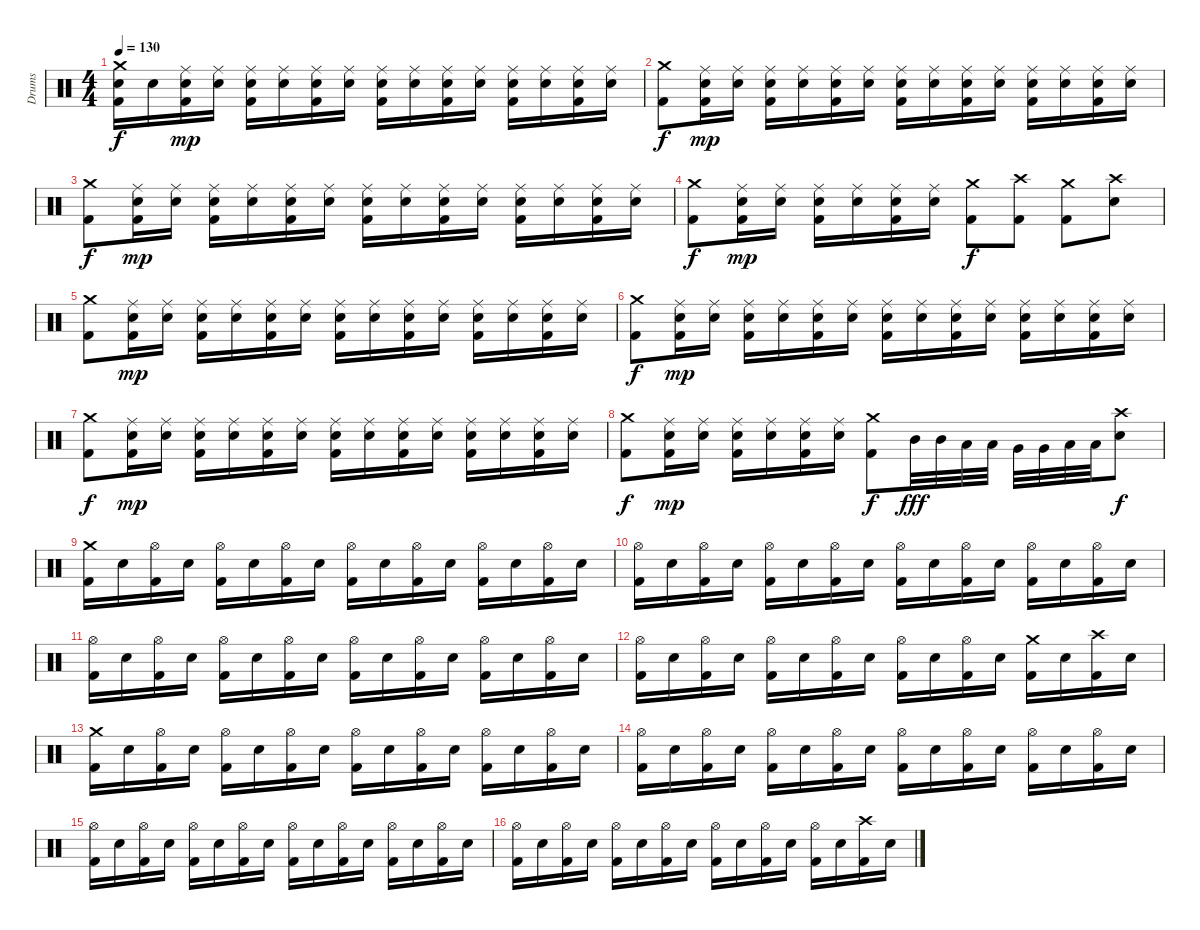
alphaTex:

\track ("Drums" "Drums") {instrument percussion}
\staff {score}
\articulation defaults
\ts (4 4)
\tempo 130
\clef neutral
\ks c
("Kick (hit) 2" "Electric Snare (hit)" "Crash medium (hit)").16{dy f} "Electric Snare (hit)".16 ("Kick (hit) 2" "Electric Snare (hit)" "Ride (middle)").16{dy mp} ("Electric Snare (hit)" "Ride (middle)").16 ("Kick (hit) 2" "Electric Snare (hit)" "Ride (middle)").16 ("Electric Snare (hit)" "Ride (middle)").16 ("Kick (hit) 2" "Electric Snare (hit)" "Ride (middle)").16 ("Electric Snare (hit)" "Ride (middle)").16 ("Kick (hit) 2" "Electric Snare (hit)" "Ride (middle)").16 ("Electric Snare (hit)" "Ride (middle)").16 ("Kick (hit) 2" "Electric Snare (hit)" "Ride (middle)").16 ("Electric Snare (hit)" "Ride (middle)").16 ("Kick (hit) 2" "Electric Snare (hit)" "Ride (middle)").16 ("Electric Snare (hit)" "Ride (middle)").16 ("Kick (hit) 2" "Electric Snare (hit)" "Ride (middle)").16 ("Electric Snare (hit)" "Ride (middle)").16 |
("Kick (hit) 2" "Crash medium (hit)").8{dy f} ("Kick (hit) 2" "Electric Snare (hit)" "Ride (middle)").16{dy mp} ("Electric Snare (hit)" "Ride (middle)").16 ("Kick (hit) 2" "Electric Snare (hit)" "Ride (middle)").16 ("Electric Snare (hit)" "Ride (middle)").16 ("Kick (hit) 2" "Electric Snare (hit)" "Ride (middle)").16 ("Electric Snare (hit)" "Ride (middle)").16 ("Kick (hit) 2" "Electric Snare (hit)" "Ride (middle)").16 ("Electric Snare (hit)" "Ride (middle)").16 ("Kick (hit) 2" "Electric Snare (hit)" "Ride (middle)").16 ("Electric Snare (hit)" "Ride (middle)").16 ("Kick (hit) 2" "Electric Snare (hit)" "Ride (middle)").16 ("Electric Snare (hit)" "Ride (middle)").16 ("Kick (hit) 2" "Electric Snare (hit)" "Ride (middle)").16 ("Electric Snare (hit)" "Ride (middle)").16 |
("Kick (hit) 2" "Crash medium (hit)").8{dy f} ("Kick (hit) 2" "Electric Snare (hit)" "Ride (middle)").16{dy mp} ("Electric Snare (hit)" "Ride (middle)").16 ("Kick (hit) 2" "Electric Snare (hit)" "Ride (middle)").16 ("Electric Snare (hit)" "Ride (middle)").16 ("Kick (hit) 2" "Electric Snare (hit)" "Ride (middle)").16 ("Electric Snare (hit)" "Ride (middle)").16 ("Kick (hit) 2" "Electric Snare (hit)" "Ride (middle)").16 ("Electric Snare (hit)" "Ride (middle)").16 ("Kick (hit) 2" "Electric Snare (hit)" "Ride (middle)").16 ("Electric Snare (hit)" "Ride (middle)").16 ("Kick (hit) 2" "Electric Snare (hit)" "Ride (middle)").16 ("Electric Snare (hit)" "Ride (middle)").16 ("Kick (hit) 2" "Electric Snare (hit)" "Ride (middle)").16 ("Electric Snare (hit)" "Ride (middle)").16 |
("Kick (hit) 2" "Crash medium (hit)").8{dy f} ("Kick (hit) 2" "Electric Snare (hit)" "Ride (middle)").16{dy mp} ("Electric Snare (hit)" "Ride (middle)").16 ("Kick (hit) 2" "Electric Snare (hit)" "Ride (middle)").16 ("Electric Snare (hit)" "Ride (middle)").16 ("Kick (hit) 2" "Electric Snare (hit)" "Ride (middle)").16 ("Electric Snare (hit)" "Ride (middle)").16 ("Kick (hit) 2" "Crash medium (hit)").8{dy f} ("Kick (hit) 2" "Crash high (hit)").8 ("Kick (hit) 2" "Crash medium (hit)").8 ("Electric Snare (hit)" "Crash high (hit)").8 |
("Kick (hit) 2" "Crash medium (hit)").8 ("Kick (hit) 2" "Electric Snare (hit)" "Ride (middle)").16{dy mp} ("Electric Snare (hit)" "Ride (middle)").16 ("Kick (hit) 2" "Electric Snare (hit)" "Ride (middle)").16 ("Electric Snare (hit)" "Ride (middle)").16 ("Kick (hit) 2" "Electric Snare (hit)" "Ride (middle)").16 ("Electric Snare (hit)" "Ride (middle)").16 ("Kick (hit) 2" "Electric Snare (hit)" "Ride (middle)").16 ("Electric Snare (hit)" "Ride (middle)").16 ("Kick (hit) 2" "Electric Snare (hit)" "Ride (middle)").16 ("Electric Snare (hit)" "Ride (middle)").16 ("Kick (hit) 2" "Electric Snare (hit)" "Ride (middle)").16 ("Electric Snare (hit)" "Ride (middle)").16 ("Kick (hit) 2" "Electric Snare (hit)" "Ride (middle)").16 ("Electric Snare (hit)" "Ride (middle)").16 |
("Kick (hit) 2" "Crash medium (hit)").8{dy f} ("Kick (hit) 2" "Electric Snare (hit)" "Ride (middle)").16{dy mp} ("Electric Snare (hit)" "Ride (middle)").16 ("Kick (hit) 2" "Electric Snare (hit)" "Ride (middle)").16 ("Electric Snare (hit)" "Ride (middle)").16 ("Kick (hit) 2" "Electric Snare (hit)" "Ride (middle)").16 ("Electric Snare (hit)" "Ride (middle)").16 ("Kick (hit) 2" "Electric Snare (hit)" "Ride (middle)").16 ("Electric Snare (hit)" "Ride (middle)").16 ("Kick (hit) 2" "Electric Snare (hit)" "Ride (middle)").16 ("Electric Snare (hit)" "Ride (middle)").16 ("Kick (hit) 2" "Electric Snare (hit)" "Ride (middle)").16 ("Electric Snare (hit)" "Ride (middle)").16 ("Kick (hit) 2" "Electric Snare (hit)" "Ride (middle)").16 ("Electric Snare (hit)" "Ride (middle)").16 |
("Kick (hit) 2" "Crash medium (hit)").8{dy f} ("Kick (hit) 2" "Electric Snare (hit)" "Ride (middle)").16{dy mp} ("Electric Snare (hit)" "Ride (middle)").16 ("Kick (hit) 2" "Electric Snare (hit)" "Ride (middle)").16 ("Electric Snare (hit)" "Ride (middle)").16 ("Kick (hit) 2" "Electric Snare (hit)" "Ride (middle)").16 ("Electric Snare (hit)" "Ride (middle)").16 ("Kick (hit) 2" "Electric Snare (hit)" "Ride (middle)").16 ("Electric Snare (hit)" "Ride (middle)").16 ("Kick (hit) 2" "Electric Snare (hit)" "Ride (middle)").16 ("Electric Snare (hit)" "Ride (middle)").16 ("Kick (hit) 2" "Electric Snare (hit)" "Ride (middle)").16 ("Electric Snare (hit)" "Ride (middle)").16 ("Kick (hit) 2" "Electric Snare (hit)" "Ride (middle)").16 ("Electric Snare (hit)" "Ride (middle)").16 |
("Kick (hit) 2" "Crash medium (hit)").8{dy f} ("Kick (hit) 2" "Electric Snare (hit)" "Ride (middle)").16{dy mp} ("Electric Snare (hit)" "Ride (middle)").16 ("Kick (hit) 2" "Electric Snare (hit)" "Ride (middle)").16 ("Electric Snare (hit)" "Ride (middle)").16 ("Kick (hit) 2" "Electric Snare (hit)" "Ride (middle)").16 ("Electric Snare (hit)" "Ride (middle)").16 ("Kick (hit) 2" "Crash medium (hit)").8{dy f} "Mid Tom (hit)".32{dy fff} "Mid Tom (hit)".32 "Low Tom (hit)".32 "Low Tom (hit)".32 "Very Low Tom (hit)".32 "Very Low Tom (hit)".32 "Low Floor Tom (hit)".32 "Low Floor Tom (hit)".32 ("Electric Snare (hit)" "Crash high (hit)").8{dy f} |
("Kick (hit) 2" "Crash medium (hit)").16 "Electric Snare (hit)".16 ("Kick (hit) 2" "Hi-Hat (open)").16 "Electric Snare (hit)".16 ("Kick (hit) 2" "Hi-Hat (open)").16 "Electric Snare (hit)".16 ("Kick (hit) 2" "Hi-Hat (open)").16 "Electric Snare (hit)".16 ("Kick (hit) 2" "Hi-Hat (open)").16 "Electric Snare (hit)".16 ("Kick (hit) 2" "Hi-Hat (open)").16 "Electric Snare (hit)".16 ("Kick (hit) 2" "Hi-Hat (open)").16 "Electric Snare (hit)".16 ("Kick (hit) 2" "Hi-Hat (open)").16 "Electric Snare (hit)".16 |
("Kick (hit) 2" "Hi-Hat (open)").16 "Electric Snare (hit)".16 ("Kick (hit) 2" "Hi-Hat (open)").16 "Electric Snare (hit)".16 ("Kick (hit) 2" "Hi-Hat (open)").16 "Electric Snare (hit)".16 ("Kick (hit) 2" "Hi-Hat (open)").16 "Electric Snare (hit)".16 ("Kick (hit) 2" "Hi-Hat (open)").16 "Electric Snare (hit)".16 ("Kick (hit) 2" "Hi-Hat (open)").16 "Electric Snare (hit)".16 ("Kick (hit) 2" "Hi-Hat (open)").16 "Electric Snare (hit)".16 ("Kick (hit) 2" "Hi-Hat (open)").16 "Electric Snare (hit)".16 |
("Kick (hit) 2" "Hi-Hat (open)").16 "Electric Snare (hit)".16 ("Kick (hit) 2" "Hi-Hat (open)").16 "Electric Snare (hit)".16 ("Kick (hit) 2" "Hi-Hat (open)").16 "Electric Snare (hit)".16 ("Kick (hit) 2" "Hi-Hat (open)").16 "Electric Snare (hit)".16 ("Kick (hit) 2" "Hi-Hat (open)").16 "Electric Snare (hit)".16 ("Kick (hit) 2" "Hi-Hat (open)").16 "Electric Snare (hit)".16 ("Kick (hit) 2" "Hi-Hat (open)").16 "Electric Snare (hit)".16 ("Kick (hit) 2" "Hi-Hat (open)").16 "Electric Snare (hit)".16 |
("Kick (hit) 2" "Hi-Hat (open)").16 "Electric Snare (hit)".16 ("Kick (hit) 2" "Hi-Hat (open)").16 "Electric Snare (hit)".16 ("Kick (hit) 2" "Hi-Hat (open)").16 "Electric Snare (hit)".16 ("Kick (hit) 2" "Hi-Hat (open)").16 "Electric Snare (hit)".16 ("Kick (hit) 2" "Hi-Hat (open)").16 "Electric Snare (hit)".16 ("Kick (hit) 2" "Hi-Hat (open)").16 "Electric Snare (hit)".16 ("Kick (hit) 2" "Crash medium (hit)").16 "Electric Snare (hit)".16 ("Kick (hit) 2" "Crash high (hit)").16 "Electric Snare (hit)".16 |
("Kick (hit) 2" "Crash medium (hit)").16 "Electric Snare (hit)".16 ("Kick (hit) 2" "Hi-Hat (open)").16 "Electric Snare (hit)".16 ("Kick (hit) 2" "Hi-Hat (open)").16 "Electric Snare (hit)".16 ("Kick (hit) 2" "Hi-Hat (open)").16 "Electric Snare (hit)".16 ("Kick (hit) 2" "Hi-Hat (open)").16 "Electric Snare (hit)".16 ("Kick (hit) 2" "Hi-Hat (open)").16 "Electric Snare (hit)".16 ("Kick (hit) 2" "Hi-Hat (open)").16 "Electric Snare (hit)".16 ("Kick (hit) 2" "Hi-Hat (open)").16 "Electric Snare (hit)".16 |
("Kick (hit) 2" "Hi-Hat (open)").16 "Electric Snare (hit)".16 ("Kick (hit) 2" "Hi-Hat (open)").16 "Electric Snare (hit)".16 ("Kick (hit) 2" "Hi-Hat (open)").16 "Electric Snare (hit)".16 ("Kick (hit) 2" "Hi-Hat (open)").16 "Electric Snare (hit)".16 ("Kick (hit) 2" "Hi-Hat (open)").16 "Electric Snare (hit)".16 ("Kick (hit) 2" "Hi-Hat (open)").16 "Electric Snare (hit)".16 ("Kick (hit) 2" "Hi-Hat (open)").16 "Electric Snare (hit)".16 ("Kick (hit) 2" "Hi-Hat (open)").16 "Electric Snare (hit)".16 |
("Kick (hit) 2" "Hi-Hat (open)").16 "Electric Snare (hit)".16 ("Kick (hit) 2" "Hi-Hat (open)").16 "Electric Snare (hit)".16 ("Kick (hit) 2" "Hi-Hat (open)").16 "Electric Snare (hit)".16 ("Kick (hit) 2" "Hi-Hat (open)").16 "Electric Snare (hit)".16 ("Kick (hit) 2" "Hi-Hat (open)").16 "Electric Snare (hit)".16 ("Kick (hit) 2" "Hi-Hat (open)").16 "Electric Snare (hit)".16 ("Kick (hit) 2" "Hi-Hat (open)").16 "Electric Snare (hit)".16 ("Kick (hit) 2" "Hi-Hat (open)").16 "Electric Snare (hit)".16 |
("Kick (hit) 2" "Hi-Hat (open)").16 "Electric Snare (hit)".16 ("Kick (hit) 2" "Hi-Hat (open)").16 "Electric Snare (hit)".16 ("Kick (hit) 2" "Hi-Hat (open)").16 "Electric Snare (hit)".16 ("Kick (hit) 2" "Hi-Hat (open)").16 "Electric Snare (hit)".16 ("Kick (hit) 2" "Hi-Hat (open)").16 "Electric Snare (hit)".16 ("Kick (hit) 2" "Hi-Hat (open)").16 "Electric Snare (hit)".16 ("Kick (hit) 2" "Hi-Hat (open)").16 "Electric Snare (hit)".16 ("Kick (hit) 2" "Crash high (hit)").16 "Electric Snare (hit)".16
